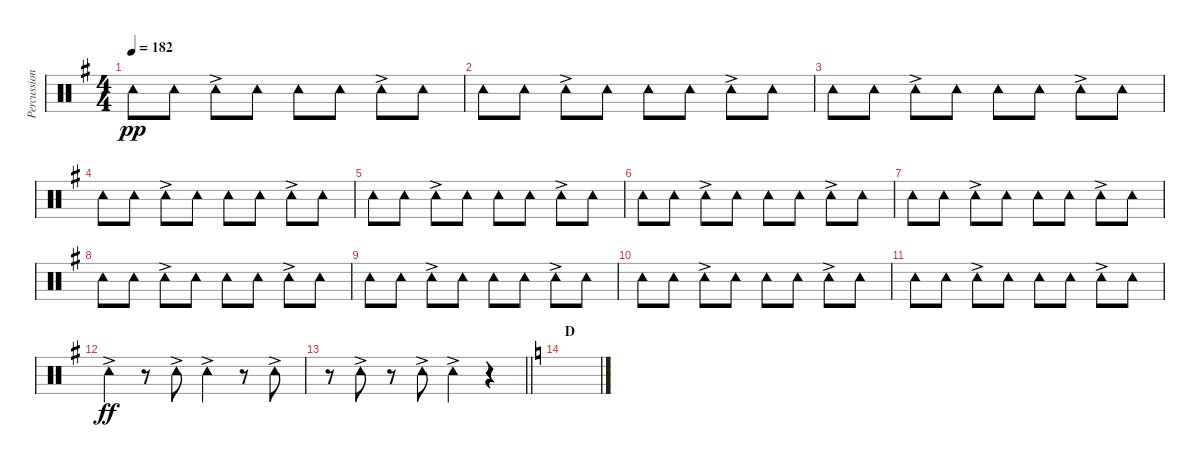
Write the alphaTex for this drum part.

\track ("Percussion (Tainaka Ritsu)" "Percussion") {instrument percussion}
\staff {score}
\articulation defaults
\ts (4 4)
\tempo 182
\clef neutral
\ks g "Tambourine (hit)".8{dy pp} "Tambourine (hit)".8 "Tambourine (hit)"{ac}.8 "Tambourine (hit)".8 "Tambourine (hit)".8 "Tambourine (hit)".8 "Tambourine (hit)"{ac}.8 "Tambourine (hit)".8
|
"Tambourine (hit)".8 "Tambourine (hit)".8 "Tambourine (hit)"{ac}.8 "Tambourine (hit)".8 "Tambourine (hit)".8 "Tambourine (hit)".8 "Tambourine (hit)"{ac}.8 "Tambourine (hit)".8 |
"Tambourine (hit)".8 "Tambourine (hit)".8 "Tambourine (hit)"{ac}.8 "Tambourine (hit)".8 "Tambourine (hit)".8 "Tambourine (hit)".8 "Tambourine (hit)"{ac}.8 "Tambourine (hit)".8 |
"Tambourine (hit)".8 "Tambourine (hit)".8 "Tambourine (hit)"{ac}.8 "Tambourine (hit)".8 "Tambourine (hit)".8 "Tambourine (hit)".8 "Tambourine (hit)"{ac}.8 "Tambourine (hit)".8 |
"Tambourine (hit)".8 "Tambourine (hit)".8 "Tambourine (hit)"{ac}.8 "Tambourine (hit)".8 "Tambourine (hit)".8 "Tambourine (hit)".8 "Tambourine (hit)"{ac}.8 "Tambourine (hit)".8 |
"Tambourine (hit)".8 "Tambourine (hit)".8 "Tambourine (hit)"{ac}.8 "Tambourine (hit)".8 "Tambourine (hit)".8 "Tambourine (hit)".8 "Tambourine (hit)"{ac}.8 "Tambourine (hit)".8 |
"Tambourine (hit)".8 "Tambourine (hit)".8 "Tambourine (hit)"{ac}.8 "Tambourine (hit)".8 "Tambourine (hit)".8 "Tambourine (hit)".8 "Tambourine (hit)"{ac}.8 "Tambourine (hit)".8 |
"Tambourine (hit)".8 "Tambourine (hit)".8 "Tambourine (hit)"{ac}.8 "Tambourine (hit)".8 "Tambourine (hit)".8 "Tambourine (hit)".8 "Tambourine (hit)"{ac}.8 "Tambourine (hit)".8 |
"Tambourine (hit)".8 "Tambourine (hit)".8 "Tambourine (hit)"{ac}.8 "Tambourine (hit)".8 "Tambourine (hit)".8 "Tambourine (hit)".8 "Tambourine (hit)"{ac}.8 "Tambourine (hit)".8 |
"Tambourine (hit)".8 "Tambourine (hit)".8 "Tambourine (hit)"{ac}.8 "Tambourine (hit)".8 "Tambourine (hit)".8 "Tambourine (hit)".8 "Tambourine (hit)"{ac}.8 "Tambourine (hit)".8 |
"Tambourine (hit)".8 "Tambourine (hit)".8 "Tambourine (hit)"{ac}.8 "Tambourine (hit)".8 "Tambourine (hit)".8 "Tambourine (hit)".8 "Tambourine (hit)"{ac}.8 "Tambourine (hit)".8 |
"Tambourine (hit)"{ac}.4{dy ff} r.8 "Tambourine (hit)"{ac}.8 "Tambourine (hit)"{ac}.4 r.8 "Tambourine (hit)"{ac}.8 |
\barLineRight lightlight
r.8 "Tambourine (hit)"{ac}.8 r.8 "Tambourine (hit)"{ac}.8 "Tambourine (hit)"{ac}.4 r.4 |
\section ("" "D")
\ks c
